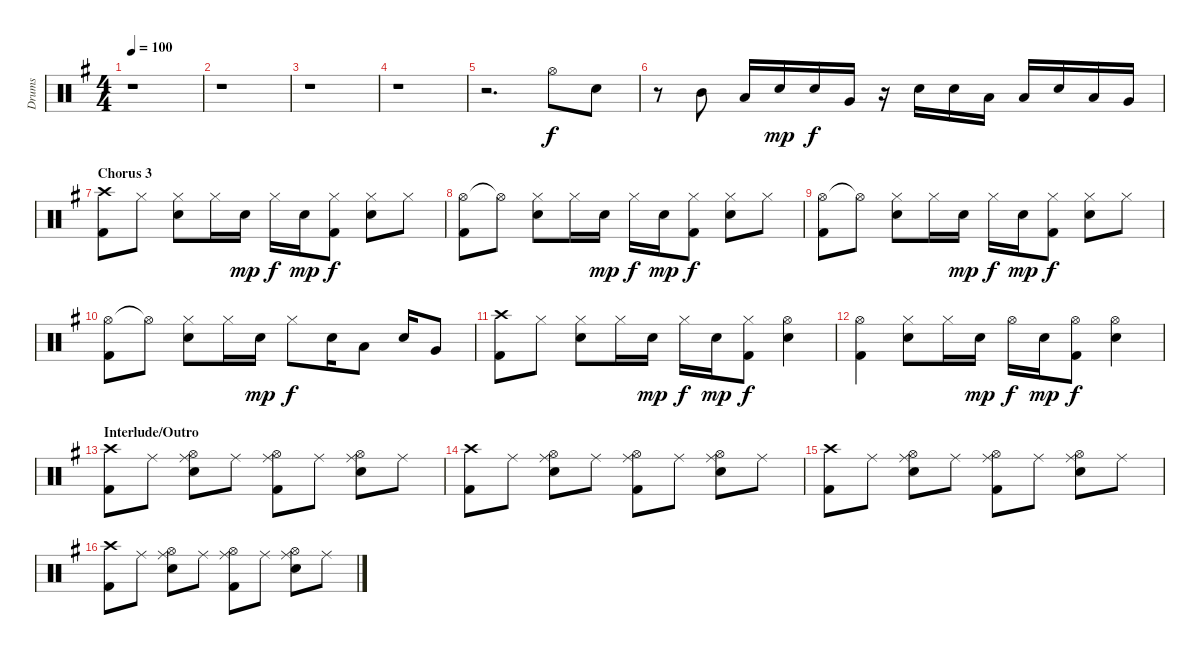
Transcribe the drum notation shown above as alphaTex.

\track ("Drums" "Drums") {instrument percussion}
\staff {score}
\articulation defaults
\ts (4 4)
\tempo 100
\clef neutral
\ks g
r.1{dy f} |
r.1 |
r.1 |
r.1 |
r.2{d} "Hi-Hat (open)".8 "Snare (hit) 2".8 |
r.8 "Mid Tom (hit)".8 "Low Tom (hit)".16 "Snare (hit) 2".16{dy mp} "Snare (hit) 2".16{dy f} "Very Low Tom (hit)".16 r.16 "Snare (hit) 2".16 "Snare (hit) 2".16 "Low Tom (hit)".16 "Low Tom (hit)".16 "Snare (hit) 2".16 "Low Tom (hit)".16 "Very Low Tom (hit)".16 |
\section ("" "Chorus 3")
("Crash high (hit)" "Kick (hit) 2").8 "Hi-Hat (closed)".8 ("Hi-Hat (closed)" "Snare (hit) 2").8 "Hi-Hat (closed)".16 "Snare (hit) 2".16{dy mp} "Hi-Hat (closed)".16{dy f} "Snare (hit) 2".16{dy mp} ("Hi-Hat (closed)" "Kick (hit) 2").8{dy f} ("Hi-Hat (closed)" "Snare (hit) 2").8 "Hi-Hat (closed)".8 |
("Hi-Hat (open)" "Kick (hit) 2").8 "Hi-Hat (open)"{t}.8 ("Hi-Hat (closed)" "Snare (hit) 2").8 "Hi-Hat (closed)".16 "Snare (hit) 2".16{dy mp} "Hi-Hat (closed)".16{dy f} "Snare (hit) 2".16{dy mp} ("Hi-Hat (closed)" "Kick (hit) 2").8{dy f} ("Hi-Hat (closed)" "Snare (hit) 2").8 "Hi-Hat (closed)".8 |
("Hi-Hat (open)" "Kick (hit) 2").8 "Hi-Hat (open)"{t}.8 ("Hi-Hat (closed)" "Snare (hit) 2").8 "Hi-Hat (closed)".16 "Snare (hit) 2".16{dy mp} "Hi-Hat (closed)".16{dy f} "Snare (hit) 2".16{dy mp} ("Hi-Hat (closed)" "Kick (hit) 2").8{dy f} ("Hi-Hat (closed)" "Snare (hit) 2").8 "Hi-Hat (closed)".8 |
("Hi-Hat (open)" "Kick (hit) 2").8 "Hi-Hat (open)"{t}.8 ("Hi-Hat (closed)" "Snare (hit) 2").8 "Hi-Hat (closed)".16 "Snare (hit) 2".16{dy mp} "Hi-Hat (closed)".8{dy f} "Snare (hit) 2".16 "Low Tom (hit)".8 "Snare (hit) 2".16 "Very Low Tom (hit)".8 |
("Crash high (hit)" "Kick (hit) 2").8 "Hi-Hat (closed)".8 ("Hi-Hat (closed)" "Snare (hit) 2").8 "Hi-Hat (closed)".16 "Snare (hit) 2".16{dy mp} "Hi-Hat (closed)".16{dy f} "Snare (hit) 2".16{dy mp} ("Hi-Hat (closed)" "Kick (hit) 2").8{dy f} ("Hi-Hat (open)" "Snare (hit) 2").4 |
("Hi-Hat (open)" "Kick (hit) 2").4 ("Hi-Hat (closed)" "Snare (hit) 2").8 "Hi-Hat (closed)".16 "Snare (hit) 2".16{dy mp} "Hi-Hat (open)".16{dy f} "Snare (hit) 2".16{dy mp} ("Hi-Hat (open)" "Kick (hit) 2").8{dy f} ("Hi-Hat (open)" "Snare (hit) 2").4 |
\section ("" "Interlude/Outro")
("Crash high (hit)" "Kick (hit) 2").8 "Ride (middle)".8 ("Hi-Hat (open)" "Ride (middle)" "Snare (hit) 2").8 "Ride (middle)".8 ("Hi-Hat (open)" "Ride (middle)" "Kick (hit) 2").8 "Ride (middle)".8 ("Hi-Hat (open)" "Ride (middle)" "Snare (hit) 2").8 "Ride (middle)".8 |
("Crash high (hit)" "Kick (hit) 2").8 "Ride (middle)".8 ("Hi-Hat (open)" "Ride (middle)" "Snare (hit) 2").8 "Ride (middle)".8 ("Hi-Hat (open)" "Ride (middle)" "Kick (hit) 2").8 "Ride (middle)".8 ("Hi-Hat (open)" "Ride (middle)" "Snare (hit) 2").8 "Ride (middle)".8 |
("Crash high (hit)" "Kick (hit) 2").8 "Ride (middle)".8 ("Hi-Hat (open)" "Ride (middle)" "Snare (hit) 2").8 "Ride (middle)".8 ("Hi-Hat (open)" "Ride (middle)" "Kick (hit) 2").8 "Ride (middle)".8 ("Hi-Hat (open)" "Ride (middle)" "Snare (hit) 2").8 "Ride (middle)".8 |
("Crash high (hit)" "Kick (hit) 2").8 "Ride (middle)".8 ("Hi-Hat (open)" "Ride (middle)" "Snare (hit) 2").8 "Ride (middle)".8 ("Hi-Hat (open)" "Ride (middle)" "Kick (hit) 2").8 "Ride (middle)".8 ("Hi-Hat (open)" "Ride (middle)" "Snare (hit) 2").8 "Ride (middle)".8
